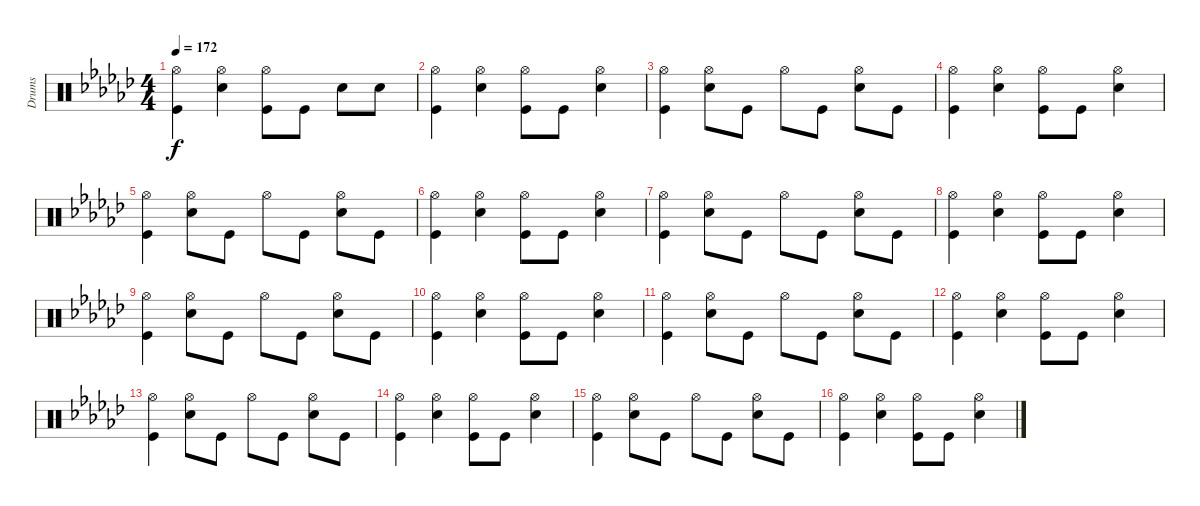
\track ("Drums" "Drums") {instrument percussion}
\staff {score}
\articulation defaults
\ts (4 4)
\tempo 172
\clef neutral
\ks ebminor
("Hi-Hat (open)" "Kick (hit)").4{dy f} ("Hi-Hat (open)" "Snare (hit) 2").4 ("Hi-Hat (open)" "Kick (hit)").8 "Kick (hit)".8 "Snare (hit) 2".8 "Snare (hit) 2".8 |
("Hi-Hat (open)" "Kick (hit)").4 ("Hi-Hat (open)" "Snare (hit) 2").4 ("Hi-Hat (open)" "Kick (hit)").8 "Kick (hit)".8 ("Hi-Hat (open)" "Snare (hit) 2").4 |
("Hi-Hat (open)" "Kick (hit)").4 ("Hi-Hat (open)" "Snare (hit) 2").8 "Kick (hit)".8 "Hi-Hat (open)".8 "Kick (hit)".8 ("Hi-Hat (open)" "Snare (hit) 2").8 "Kick (hit)".8 |
("Hi-Hat (open)" "Kick (hit)").4 ("Hi-Hat (open)" "Snare (hit) 2").4 ("Hi-Hat (open)" "Kick (hit)").8 "Kick (hit)".8 ("Hi-Hat (open)" "Snare (hit) 2").4 |
("Hi-Hat (open)" "Kick (hit)").4 ("Hi-Hat (open)" "Snare (hit) 2").8 "Kick (hit)".8 "Hi-Hat (open)".8 "Kick (hit)".8 ("Hi-Hat (open)" "Snare (hit) 2").8 "Kick (hit)".8 |
("Hi-Hat (open)" "Kick (hit)").4 ("Hi-Hat (open)" "Snare (hit) 2").4 ("Hi-Hat (open)" "Kick (hit)").8 "Kick (hit)".8 ("Hi-Hat (open)" "Snare (hit) 2").4 |
("Hi-Hat (open)" "Kick (hit)").4 ("Hi-Hat (open)" "Snare (hit) 2").8 "Kick (hit)".8 "Hi-Hat (open)".8 "Kick (hit)".8 ("Hi-Hat (open)" "Snare (hit) 2").8 "Kick (hit)".8 |
("Hi-Hat (open)" "Kick (hit)").4 ("Hi-Hat (open)" "Snare (hit) 2").4 ("Hi-Hat (open)" "Kick (hit)").8 "Kick (hit)".8 ("Hi-Hat (open)" "Snare (hit) 2").4 |
("Hi-Hat (open)" "Kick (hit)").4 ("Hi-Hat (open)" "Snare (hit) 2").8 "Kick (hit)".8 "Hi-Hat (open)".8 "Kick (hit)".8 ("Hi-Hat (open)" "Snare (hit) 2").8 "Kick (hit)".8 |
("Hi-Hat (open)" "Kick (hit)").4 ("Hi-Hat (open)" "Snare (hit) 2").4 ("Hi-Hat (open)" "Kick (hit)").8 "Kick (hit)".8 ("Hi-Hat (open)" "Snare (hit) 2").4 |
("Hi-Hat (open)" "Kick (hit)").4 ("Hi-Hat (open)" "Snare (hit) 2").8 "Kick (hit)".8 "Hi-Hat (open)".8 "Kick (hit)".8 ("Hi-Hat (open)" "Snare (hit) 2").8 "Kick (hit)".8 |
("Hi-Hat (open)" "Kick (hit)").4 ("Hi-Hat (open)" "Snare (hit) 2").4 ("Hi-Hat (open)" "Kick (hit)").8 "Kick (hit)".8 ("Hi-Hat (open)" "Snare (hit) 2").4 |
("Hi-Hat (open)" "Kick (hit)").4 ("Hi-Hat (open)" "Snare (hit) 2").8 "Kick (hit)".8 "Hi-Hat (open)".8 "Kick (hit)".8 ("Hi-Hat (open)" "Snare (hit) 2").8 "Kick (hit)".8 |
("Hi-Hat (open)" "Kick (hit)").4 ("Hi-Hat (open)" "Snare (hit) 2").4 ("Hi-Hat (open)" "Kick (hit)").8 "Kick (hit)".8 ("Hi-Hat (open)" "Snare (hit) 2").4 |
("Hi-Hat (open)" "Kick (hit)").4 ("Hi-Hat (open)" "Snare (hit) 2").8 "Kick (hit)".8 "Hi-Hat (open)".8 "Kick (hit)".8 ("Hi-Hat (open)" "Snare (hit) 2").8 "Kick (hit)".8 |
("Hi-Hat (open)" "Kick (hit)").4 ("Hi-Hat (open)" "Snare (hit) 2").4 ("Hi-Hat (open)" "Kick (hit)").8 "Kick (hit)".8 ("Hi-Hat (open)" "Snare (hit) 2").4
